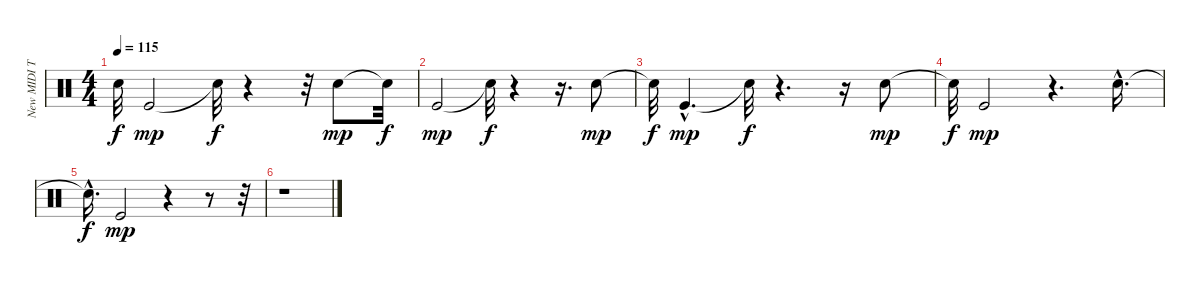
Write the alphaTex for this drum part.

\track ("New MIDI Track" "New MIDI T") {instrument percussion}
\staff {score}
\articulation defaults
\ts (4 4)
\tempo 115
\clef neutral
\ks c "Snare (hit)"{t}.32{dy f} "Kick (hit)".2{dy mp} "Snare (hit)"{t}.32{dy f}
r.4 r.32 "Snare (hit)".8{dy mp} "Snare (hit)"{t}.32{dy f} |
"Kick (hit)".2{dy mp} "Snare (hit)"{t}.32{dy f} r.4 r.16{d} "Snare (hit)".8{dy mp} |
"Snare (hit)"{t}.32{dy f} "Kick (hit)"{hac}.4{d dy mp} "Snare (hit)"{t}.32{dy f} r.4{d} r.16 "Snare (hit)".8{dy mp} |
"Snare (hit)"{t}.32{dy f} "Kick (hit)".2{dy mp} r.4{d} "Snare (hit)"{hac}.16{d} |
"Snare (hit)"{hac t}.16{d dy f} "Kick (hit)".2{dy mp} r.4 r.8 r.32 |
r.1
